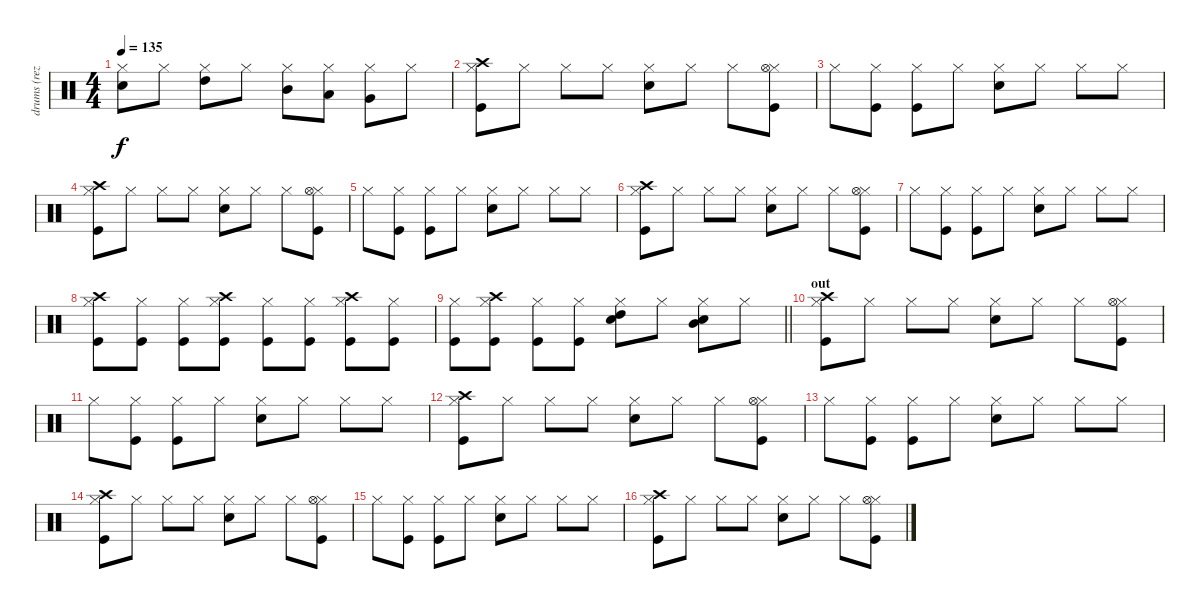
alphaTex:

\track ("drums (reza)" "drums (rez") {instrument percussion}
\staff {score}
\articulation defaults
\ts (4 4)
\tempo 135
\clef neutral
\ks c
("Hi-Hat (closed)" "Snare (hit) 2").8{dy f} "Hi-Hat (closed)".8 ("Hi-Hat (closed)" "High Tom (hit)").8 "Hi-Hat (closed)".8 ("Hi-Hat (closed)" "Mid Tom (hit)").8 ("Hi-Hat (closed)" "Low Tom (hit)").8 ("Hi-Hat (closed)" "Very Low Tom (hit)").8 "Hi-Hat (closed)".8 |
("Hi-Hat (closed)" "Kick (hit)" "Crash high (hit)").8 "Hi-Hat (closed)".8 "Hi-Hat (closed)".8 "Hi-Hat (closed)".8 ("Hi-Hat (closed)" "Snare (hit) 2").8 "Hi-Hat (closed)".8 "Hi-Hat (closed)".8 ("Hi-Hat (closed)" "Kick (hit)" "Hi-Hat (open)").8 |
"Hi-Hat (closed)".8 ("Hi-Hat (closed)" "Kick (hit)").8 ("Hi-Hat (closed)" "Kick (hit)").8 "Hi-Hat (closed)".8 ("Hi-Hat (closed)" "Snare (hit) 2").8 "Hi-Hat (closed)".8 "Hi-Hat (closed)".8 "Hi-Hat (closed)".8 |
("Hi-Hat (closed)" "Kick (hit)" "Crash high (hit)").8 "Hi-Hat (closed)".8 "Hi-Hat (closed)".8 "Hi-Hat (closed)".8 ("Hi-Hat (closed)" "Snare (hit) 2").8 "Hi-Hat (closed)".8 "Hi-Hat (closed)".8 ("Hi-Hat (closed)" "Kick (hit)" "Hi-Hat (open)").8 |
"Hi-Hat (closed)".8 ("Hi-Hat (closed)" "Kick (hit)").8 ("Hi-Hat (closed)" "Kick (hit)").8 "Hi-Hat (closed)".8 ("Hi-Hat (closed)" "Snare (hit) 2").8 "Hi-Hat (closed)".8 "Hi-Hat (closed)".8 "Hi-Hat (closed)".8 |
("Hi-Hat (closed)" "Kick (hit)" "Crash high (hit)").8 "Hi-Hat (closed)".8 "Hi-Hat (closed)".8 "Hi-Hat (closed)".8 ("Hi-Hat (closed)" "Snare (hit) 2").8 "Hi-Hat (closed)".8 "Hi-Hat (closed)".8 ("Hi-Hat (closed)" "Kick (hit)" "Hi-Hat (open)").8 |
"Hi-Hat (closed)".8 ("Hi-Hat (closed)" "Kick (hit)").8 ("Hi-Hat (closed)" "Kick (hit)").8 "Hi-Hat (closed)".8 ("Hi-Hat (closed)" "Snare (hit) 2").8 "Hi-Hat (closed)".8 "Hi-Hat (closed)".8 "Hi-Hat (closed)".8 |
("Hi-Hat (closed)" "Kick (hit)" "Crash high (hit)").8 ("Hi-Hat (closed)" "Kick (hit)").8 ("Hi-Hat (closed)" "Kick (hit)").8 ("Hi-Hat (closed)" "Kick (hit)" "Crash high (hit)").8 ("Hi-Hat (closed)" "Kick (hit)").8 ("Hi-Hat (closed)" "Kick (hit)").8 ("Hi-Hat (closed)" "Kick (hit)" "Crash high (hit)").8 ("Hi-Hat (closed)" "Kick (hit)").8 |
\barLineRight lightlight
("Hi-Hat (closed)" "Kick (hit)").8 ("Hi-Hat (closed)" "Kick (hit)" "Crash high (hit)").8 ("Hi-Hat (closed)" "Kick (hit)").8 ("Hi-Hat (closed)" "Kick (hit)").8 ("Hi-Hat (closed)" "Snare (hit) 2" "High Tom (hit)").8 "Hi-Hat (closed)".8 ("Hi-Hat (closed)" "Snare (hit) 2" "Mid Tom (hit)").8 "Hi-Hat (closed)".8 |
\section ("" "out")
("Hi-Hat (closed)" "Kick (hit)" "Crash high (hit)").8 "Hi-Hat (closed)".8 "Hi-Hat (closed)".8 "Hi-Hat (closed)".8 ("Hi-Hat (closed)" "Snare (hit) 2").8 "Hi-Hat (closed)".8 "Hi-Hat (closed)".8 ("Hi-Hat (closed)" "Kick (hit)" "Hi-Hat (open)").8 |
"Hi-Hat (closed)".8 ("Hi-Hat (closed)" "Kick (hit)").8 ("Hi-Hat (closed)" "Kick (hit)").8 "Hi-Hat (closed)".8 ("Hi-Hat (closed)" "Snare (hit) 2").8 "Hi-Hat (closed)".8 "Hi-Hat (closed)".8 "Hi-Hat (closed)".8 |
("Hi-Hat (closed)" "Kick (hit)" "Crash high (hit)").8 "Hi-Hat (closed)".8 "Hi-Hat (closed)".8 "Hi-Hat (closed)".8 ("Hi-Hat (closed)" "Snare (hit) 2").8 "Hi-Hat (closed)".8 "Hi-Hat (closed)".8 ("Hi-Hat (closed)" "Kick (hit)" "Hi-Hat (open)").8 |
"Hi-Hat (closed)".8 ("Hi-Hat (closed)" "Kick (hit)").8 ("Hi-Hat (closed)" "Kick (hit)").8 "Hi-Hat (closed)".8 ("Hi-Hat (closed)" "Snare (hit) 2").8 "Hi-Hat (closed)".8 "Hi-Hat (closed)".8 "Hi-Hat (closed)".8 |
("Hi-Hat (closed)" "Kick (hit)" "Crash high (hit)").8 "Hi-Hat (closed)".8 "Hi-Hat (closed)".8 "Hi-Hat (closed)".8 ("Hi-Hat (closed)" "Snare (hit) 2").8 "Hi-Hat (closed)".8 "Hi-Hat (closed)".8 ("Hi-Hat (closed)" "Kick (hit)" "Hi-Hat (open)").8 |
"Hi-Hat (closed)".8 ("Hi-Hat (closed)" "Kick (hit)").8 ("Hi-Hat (closed)" "Kick (hit)").8 "Hi-Hat (closed)".8 ("Hi-Hat (closed)" "Snare (hit) 2").8 "Hi-Hat (closed)".8 "Hi-Hat (closed)".8 "Hi-Hat (closed)".8 |
("Hi-Hat (closed)" "Kick (hit)" "Crash high (hit)").8 "Hi-Hat (closed)".8 "Hi-Hat (closed)".8 "Hi-Hat (closed)".8 ("Hi-Hat (closed)" "Snare (hit) 2").8 "Hi-Hat (closed)".8 "Hi-Hat (closed)".8 ("Hi-Hat (closed)" "Kick (hit)" "Hi-Hat (open)").8
